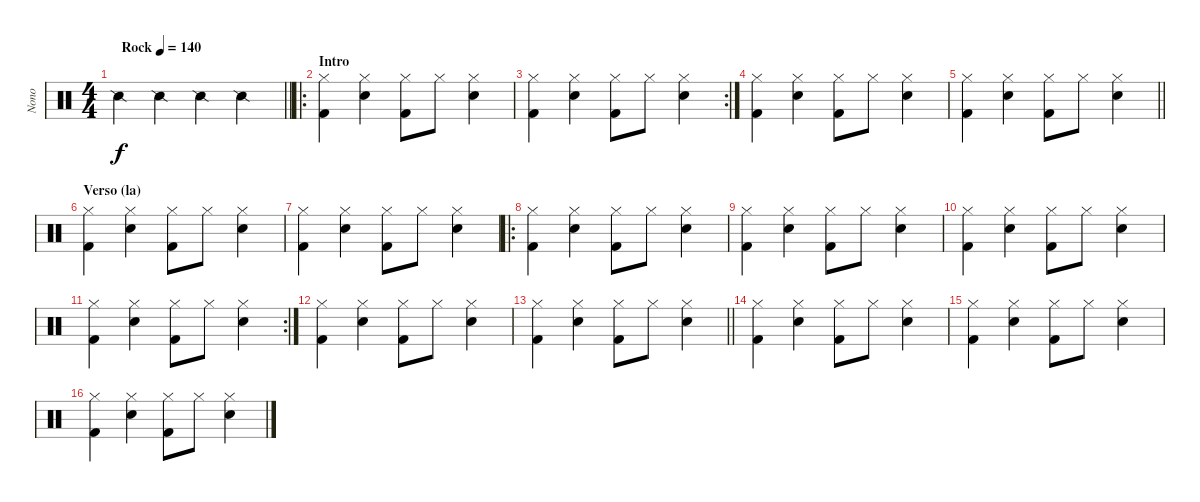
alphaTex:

\track ("Nono" "Nono") {instrument percussion}
\staff {score}
\articulation defaults
\ts (4 4)
\tempo (140 "Rock")
\clef neutral
\barLineRight lightlight
\ks c "Snare (side stick) 2".4{dy f} "Snare (side stick) 2".4 "Snare (side stick) 2".4 "Snare (side stick) 2".4
|
\ro
\section ("" "Intro")
("Hi-Hat (closed)" "Kick (hit) 2").4 ("Hi-Hat (closed)" "Snare (hit) 2").4 ("Hi-Hat (closed)" "Kick (hit) 2").8 "Hi-Hat (closed)".8 ("Hi-Hat (closed)" "Snare (hit) 2").4 |
\rc 2
("Hi-Hat (closed)" "Kick (hit) 2").4 ("Hi-Hat (closed)" "Snare (hit) 2").4 ("Hi-Hat (closed)" "Kick (hit) 2").8 "Hi-Hat (closed)".8 ("Hi-Hat (closed)" "Snare (hit) 2").4 |
("Hi-Hat (closed)" "Kick (hit) 2").4 ("Hi-Hat (closed)" "Snare (hit) 2").4 ("Hi-Hat (closed)" "Kick (hit) 2").8 "Hi-Hat (closed)".8 ("Hi-Hat (closed)" "Snare (hit) 2").4 |
\barLineRight lightlight
("Hi-Hat (closed)" "Kick (hit) 2").4 ("Hi-Hat (closed)" "Snare (hit) 2").4 ("Hi-Hat (closed)" "Kick (hit) 2").8 "Hi-Hat (closed)".8 ("Hi-Hat (closed)" "Snare (hit) 2").4 |
\section ("" "Verso (la)")
("Hi-Hat (closed)" "Kick (hit) 2").4 ("Hi-Hat (closed)" "Snare (hit) 2").4 ("Hi-Hat (closed)" "Kick (hit) 2").8 "Hi-Hat (closed)".8 ("Hi-Hat (closed)" "Snare (hit) 2").4 |
("Hi-Hat (closed)" "Kick (hit) 2").4 ("Hi-Hat (closed)" "Snare (hit) 2").4 ("Hi-Hat (closed)" "Kick (hit) 2").8 "Hi-Hat (closed)".8 ("Hi-Hat (closed)" "Snare (hit) 2").4 |
\ro
("Hi-Hat (closed)" "Kick (hit) 2").4 ("Hi-Hat (closed)" "Snare (hit) 2").4 ("Hi-Hat (closed)" "Kick (hit) 2").8 "Hi-Hat (closed)".8 ("Hi-Hat (closed)" "Snare (hit) 2").4 |
("Hi-Hat (closed)" "Kick (hit) 2").4 ("Hi-Hat (closed)" "Snare (hit) 2").4 ("Hi-Hat (closed)" "Kick (hit) 2").8 "Hi-Hat (closed)".8 ("Hi-Hat (closed)" "Snare (hit) 2").4 |
("Hi-Hat (closed)" "Kick (hit) 2").4 ("Hi-Hat (closed)" "Snare (hit) 2").4 ("Hi-Hat (closed)" "Kick (hit) 2").8 "Hi-Hat (closed)".8 ("Hi-Hat (closed)" "Snare (hit) 2").4 |
\rc 2
("Hi-Hat (closed)" "Kick (hit) 2").4 ("Hi-Hat (closed)" "Snare (hit) 2").4 ("Hi-Hat (closed)" "Kick (hit) 2").8 "Hi-Hat (closed)".8 ("Hi-Hat (closed)" "Snare (hit) 2").4 |
("Hi-Hat (closed)" "Kick (hit) 2").4 ("Hi-Hat (closed)" "Snare (hit) 2").4 ("Hi-Hat (closed)" "Kick (hit) 2").8 "Hi-Hat (closed)".8 ("Hi-Hat (closed)" "Snare (hit) 2").4 |
\barLineRight lightlight
("Hi-Hat (closed)" "Kick (hit) 2").4 ("Hi-Hat (closed)" "Snare (hit) 2").4 ("Hi-Hat (closed)" "Kick (hit) 2").8 "Hi-Hat (closed)".8 ("Hi-Hat (closed)" "Snare (hit) 2").4 |
("Hi-Hat (closed)" "Kick (hit) 2").4 ("Hi-Hat (closed)" "Snare (hit) 2").4 ("Hi-Hat (closed)" "Kick (hit) 2").8 "Hi-Hat (closed)".8 ("Hi-Hat (closed)" "Snare (hit) 2").4 |
("Hi-Hat (closed)" "Kick (hit) 2").4 ("Hi-Hat (closed)" "Snare (hit) 2").4 ("Hi-Hat (closed)" "Kick (hit) 2").8 "Hi-Hat (closed)".8 ("Hi-Hat (closed)" "Snare (hit) 2").4 |
("Hi-Hat (closed)" "Kick (hit) 2").4 ("Hi-Hat (closed)" "Snare (hit) 2").4 ("Hi-Hat (closed)" "Kick (hit) 2").8 "Hi-Hat (closed)".8 ("Hi-Hat (closed)" "Snare (hit) 2").4
